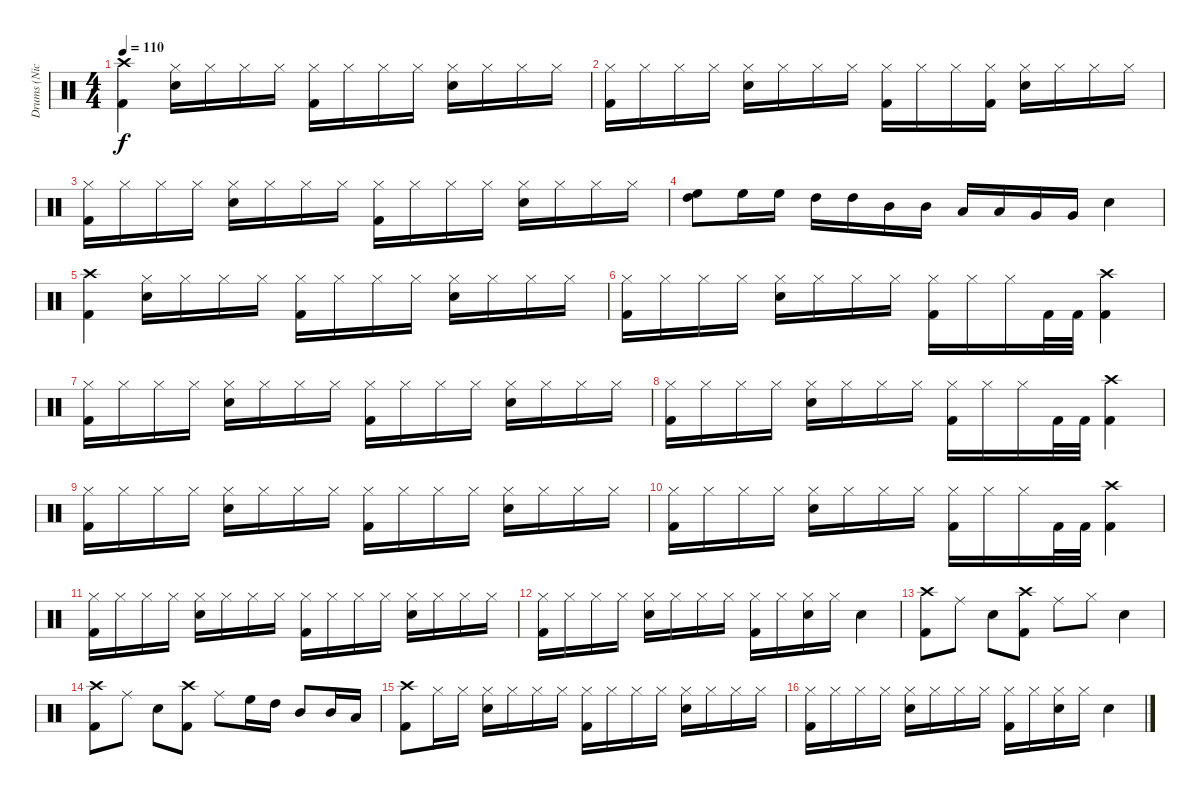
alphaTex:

\track ("Drums (Nicko)" "Drums (Nic") {instrument percussion}
\staff {score}
\articulation defaults
\ts (4 4)
\tempo 110
\clef neutral
\ks c
("Crash high (hit)" "Kick (hit) 2").4{dy f} ("Hi-Hat (closed)" "Snare (hit) 2").16 "Hi-Hat (closed)".16 "Hi-Hat (closed)".16 "Hi-Hat (closed)".16 ("Hi-Hat (closed)" "Kick (hit) 2").16 "Hi-Hat (closed)".16 "Hi-Hat (closed)".16 "Hi-Hat (closed)".16 ("Hi-Hat (closed)" "Snare (hit) 2").16 "Hi-Hat (closed)".16 "Hi-Hat (closed)".16 "Hi-Hat (closed)".16 |
("Hi-Hat (closed)" "Kick (hit) 2").16 "Hi-Hat (closed)".16 "Hi-Hat (closed)".16 "Hi-Hat (closed)".16 ("Hi-Hat (closed)" "Snare (hit) 2").16 "Hi-Hat (closed)".16 "Hi-Hat (closed)".16 "Hi-Hat (closed)".16 ("Hi-Hat (closed)" "Kick (hit) 2").16 "Hi-Hat (closed)".16 "Hi-Hat (closed)".16 ("Hi-Hat (closed)" "Kick (hit) 2").16 ("Hi-Hat (closed)" "Snare (hit) 2").16 "Hi-Hat (closed)".16 "Hi-Hat (closed)".16 "Hi-Hat (closed)".16 |
("Hi-Hat (closed)" "Kick (hit) 2").16 "Hi-Hat (closed)".16 "Hi-Hat (closed)".16 "Hi-Hat (closed)".16 ("Hi-Hat (closed)" "Snare (hit) 2").16 "Hi-Hat (closed)".16 "Hi-Hat (closed)".16 "Hi-Hat (closed)".16 ("Hi-Hat (closed)" "Kick (hit) 2").16 "Hi-Hat (closed)".16 "Hi-Hat (closed)".16 "Hi-Hat (closed)".16 ("Hi-Hat (closed)" "Snare (hit) 2").16 "Hi-Hat (closed)".16 "Hi-Hat (closed)".16 "Hi-Hat (closed)".16 |
("High Floor Tom (hit)" "High Tom (hit)").8 "High Floor Tom (hit)".16 "High Floor Tom (hit)".16 "High Tom (hit)".16 "High Tom (hit)".16 "Mid Tom (hit)".16 "Mid Tom (hit)".16 "Low Tom (hit)".16 "Low Tom (hit)".16 "Very Low Tom (hit)".16 "Very Low Tom (hit)".16 "Snare (hit) 2".4 |
("Crash high (hit)" "Kick (hit) 2").4 ("Hi-Hat (closed)" "Snare (hit) 2").16 "Hi-Hat (closed)".16 "Hi-Hat (closed)".16 "Hi-Hat (closed)".16 ("Hi-Hat (closed)" "Kick (hit) 2").16 "Hi-Hat (closed)".16 "Hi-Hat (closed)".16 "Hi-Hat (closed)".16 ("Hi-Hat (closed)" "Snare (hit) 2").16 "Hi-Hat (closed)".16 "Hi-Hat (closed)".16 "Hi-Hat (closed)".16 |
("Hi-Hat (closed)" "Kick (hit) 2").16 "Hi-Hat (closed)".16 "Hi-Hat (closed)".16 "Hi-Hat (closed)".16 ("Hi-Hat (closed)" "Snare (hit) 2").16 "Hi-Hat (closed)".16 "Hi-Hat (closed)".16 "Hi-Hat (closed)".16 ("Hi-Hat (closed)" "Kick (hit) 2").16 "Hi-Hat (closed)".16 "Hi-Hat (closed)".16 "Kick (hit) 2".32 "Kick (hit) 2".32 ("Crash high (hit)" "Kick (hit) 2").4 |
("Hi-Hat (closed)" "Kick (hit) 2").16 "Hi-Hat (closed)".16 "Hi-Hat (closed)".16 "Hi-Hat (closed)".16 ("Hi-Hat (closed)" "Snare (hit) 2").16 "Hi-Hat (closed)".16 "Hi-Hat (closed)".16 "Hi-Hat (closed)".16 ("Hi-Hat (closed)" "Kick (hit) 2").16 "Hi-Hat (closed)".16 "Hi-Hat (closed)".16 "Hi-Hat (closed)".16 ("Hi-Hat (closed)" "Snare (hit) 2").16 "Hi-Hat (closed)".16 "Hi-Hat (closed)".16 "Hi-Hat (closed)".16 |
("Hi-Hat (closed)" "Kick (hit) 2").16 "Hi-Hat (closed)".16 "Hi-Hat (closed)".16 "Hi-Hat (closed)".16 ("Hi-Hat (closed)" "Snare (hit) 2").16 "Hi-Hat (closed)".16 "Hi-Hat (closed)".16 "Hi-Hat (closed)".16 ("Hi-Hat (closed)" "Kick (hit) 2").16 "Hi-Hat (closed)".16 "Hi-Hat (closed)".16 "Kick (hit) 2".32 "Kick (hit) 2".32 ("Crash high (hit)" "Kick (hit) 2").4 |
("Hi-Hat (closed)" "Kick (hit) 2").16 "Hi-Hat (closed)".16 "Hi-Hat (closed)".16 "Hi-Hat (closed)".16 ("Hi-Hat (closed)" "Snare (hit) 2").16 "Hi-Hat (closed)".16 "Hi-Hat (closed)".16 "Hi-Hat (closed)".16 ("Hi-Hat (closed)" "Kick (hit) 2").16 "Hi-Hat (closed)".16 "Hi-Hat (closed)".16 "Hi-Hat (closed)".16 ("Hi-Hat (closed)" "Snare (hit) 2").16 "Hi-Hat (closed)".16 "Hi-Hat (closed)".16 "Hi-Hat (closed)".16 |
("Hi-Hat (closed)" "Kick (hit) 2").16 "Hi-Hat (closed)".16 "Hi-Hat (closed)".16 "Hi-Hat (closed)".16 ("Hi-Hat (closed)" "Snare (hit) 2").16 "Hi-Hat (closed)".16 "Hi-Hat (closed)".16 "Hi-Hat (closed)".16 ("Hi-Hat (closed)" "Kick (hit) 2").16 "Hi-Hat (closed)".16 "Hi-Hat (closed)".16 "Kick (hit) 2".32 "Kick (hit) 2".32 ("Crash high (hit)" "Kick (hit) 2").4 |
("Hi-Hat (closed)" "Kick (hit) 2").16 "Hi-Hat (closed)".16 "Hi-Hat (closed)".16 "Hi-Hat (closed)".16 ("Hi-Hat (closed)" "Snare (hit) 2").16 "Hi-Hat (closed)".16 "Hi-Hat (closed)".16 "Hi-Hat (closed)".16 ("Hi-Hat (closed)" "Kick (hit) 2").16 "Hi-Hat (closed)".16 "Hi-Hat (closed)".16 "Hi-Hat (closed)".16 ("Hi-Hat (closed)" "Snare (hit) 2").16 "Hi-Hat (closed)".16 "Hi-Hat (closed)".16 "Hi-Hat (closed)".16 |
("Hi-Hat (closed)" "Kick (hit) 2").16 "Hi-Hat (closed)".16 "Hi-Hat (closed)".16 "Hi-Hat (closed)".16 ("Hi-Hat (closed)" "Snare (hit) 2").16 "Hi-Hat (closed)".16 "Hi-Hat (closed)".16 "Hi-Hat (closed)".16 ("Hi-Hat (closed)" "Kick (hit) 2").16 "Hi-Hat (closed)".16 ("Hi-Hat (closed)" "Snare (hit) 2").16 "Hi-Hat (closed)".16 "Snare (hit) 2".4 |
("Crash high (hit)" "Kick (hit) 2").8 "Ride (middle)".8 "Snare (hit) 2".8 ("Crash high (hit)" "Kick (hit) 2").8 "Ride (middle)".8 "Hi-Hat (closed)".8 "Snare (hit) 2".4 |
("Crash high (hit)" "Kick (hit) 2").8 "Ride (middle)".8 "Snare (hit) 2".8 ("Crash high (hit)" "Kick (hit) 2").8 "Ride (middle)".8 "High Floor Tom (hit)".16 "High Tom (hit)".16 "Mid Tom (hit)".8 "Mid Tom (hit)".16 "Low Tom (hit)".16 |
("Crash high (hit)" "Kick (hit) 2").8 "Hi-Hat (closed)".16 "Hi-Hat (closed)".16 ("Hi-Hat (closed)" "Snare (hit) 2").16 "Hi-Hat (closed)".16 "Hi-Hat (closed)".16 "Hi-Hat (closed)".16 ("Hi-Hat (closed)" "Kick (hit) 2").16 "Hi-Hat (closed)".16 "Hi-Hat (closed)".16 "Hi-Hat (closed)".16 ("Hi-Hat (closed)" "Snare (hit) 2").16 "Hi-Hat (closed)".16 "Hi-Hat (closed)".16 "Hi-Hat (closed)".16 |
("Hi-Hat (closed)" "Kick (hit) 2").16 "Hi-Hat (closed)".16 "Hi-Hat (closed)".16 "Hi-Hat (closed)".16 ("Hi-Hat (closed)" "Snare (hit) 2").16 "Hi-Hat (closed)".16 "Hi-Hat (closed)".16 "Hi-Hat (closed)".16 ("Hi-Hat (closed)" "Kick (hit) 2").16 "Hi-Hat (closed)".16 ("Hi-Hat (closed)" "Snare (hit) 2").16 "Hi-Hat (closed)".16 "Snare (hit) 2".4
